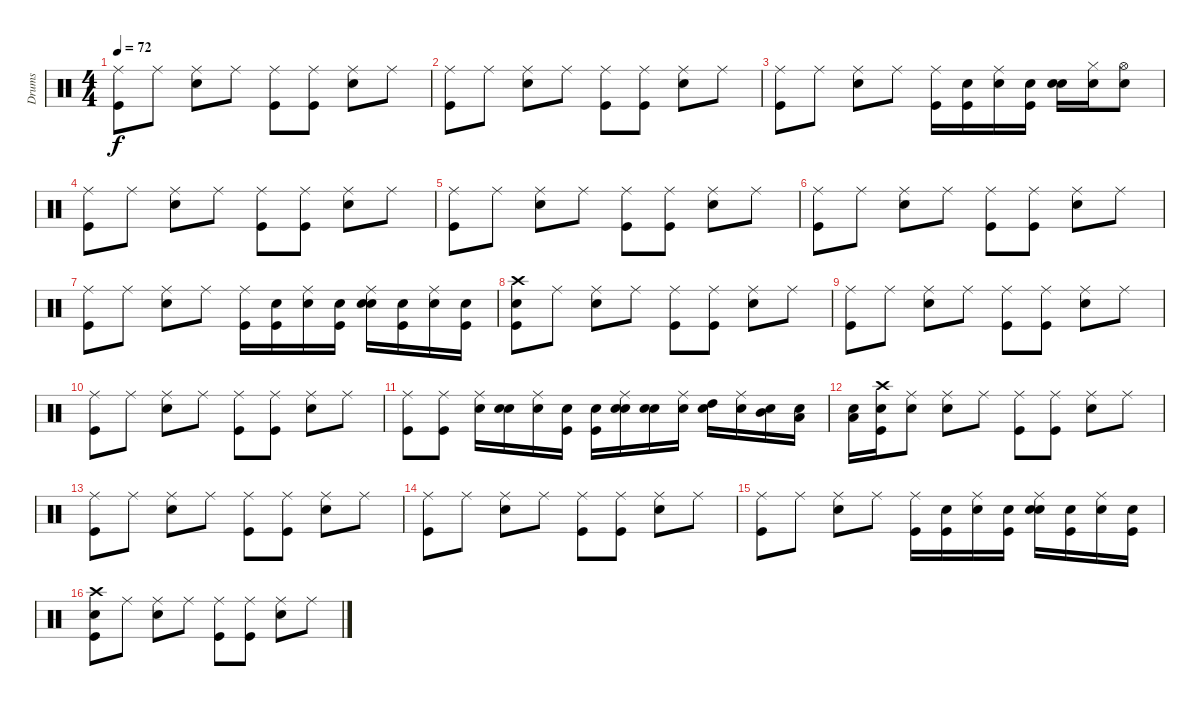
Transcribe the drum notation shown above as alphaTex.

\track ("Drums" "Drums") {instrument percussion}
\staff {score}
\articulation defaults
\ts (4 4)
\tempo 72
\clef neutral
\ks c
("Ride (middle)" "Kick (hit)").8{dy f} "Ride (middle)".8 ("Ride (middle)" "Snare (hit) 2").8 "Ride (middle)".8 ("Ride (middle)" "Kick (hit)").8 ("Ride (middle)" "Kick (hit)").8 ("Ride (middle)" "Snare (hit) 2").8 "Ride (middle)".8 |
("Ride (middle)" "Kick (hit)").8 "Ride (middle)".8 ("Ride (middle)" "Snare (hit) 2").8 "Ride (middle)".8 ("Ride (middle)" "Kick (hit)").8 ("Ride (middle)" "Kick (hit)").8 ("Ride (middle)" "Snare (hit) 2").8 "Ride (middle)".8 |
("Ride (middle)" "Kick (hit)").8 "Ride (middle)".8 ("Ride (middle)" "Snare (hit) 2").8 "Ride (middle)".8 ("Ride (middle)" "Kick (hit)").16 ("Snare (hit)" "Kick (hit)").16 ("Snare (hit)" "Ride (middle)").16 ("Snare (hit)" "Kick (hit)").16 ("Snare (hit)" "Snare (hit) 2").16 ("Snare (hit)" "Hi-Hat (closed)").16 ("Snare (hit)" "Hi-Hat (open)").8 |
("Ride (middle)" "Kick (hit)").8 "Ride (middle)".8 ("Ride (middle)" "Snare (hit) 2").8 "Ride (middle)".8 ("Ride (middle)" "Kick (hit)").8 ("Ride (middle)" "Kick (hit)").8 ("Ride (middle)" "Snare (hit) 2").8 "Ride (middle)".8 |
("Ride (middle)" "Kick (hit)").8 "Ride (middle)".8 ("Ride (middle)" "Snare (hit) 2").8 "Ride (middle)".8 ("Ride (middle)" "Kick (hit)").8 ("Ride (middle)" "Kick (hit)").8 ("Ride (middle)" "Snare (hit) 2").8 "Ride (middle)".8 |
("Ride (middle)" "Kick (hit)").8 "Ride (middle)".8 ("Ride (middle)" "Snare (hit) 2").8 "Ride (middle)".8 ("Ride (middle)" "Kick (hit)").8 ("Ride (middle)" "Kick (hit)").8 ("Ride (middle)" "Snare (hit) 2").8 "Ride (middle)".8 |
("Ride (middle)" "Kick (hit)").8 "Ride (middle)".8 ("Ride (middle)" "Snare (hit) 2").8 "Ride (middle)".8 ("Ride (middle)" "Kick (hit)").16 ("Snare (hit)" "Kick (hit)").16 ("Snare (hit)" "Ride (middle)").16 ("Snare (hit)" "Kick (hit)").16 ("Snare (hit)" "Ride (middle)" "Snare (hit) 2").16 ("Snare (hit)" "Kick (hit)").16 ("Snare (hit)" "Ride (middle)").16 ("Snare (hit)" "Kick (hit)").16 |
("Snare (hit)" "Crash high (hit)" "Kick (hit)").8 "Ride (middle)".8 ("Ride (middle)" "Snare (hit) 2").8 "Ride (middle)".8 ("Ride (middle)" "Kick (hit)").8 ("Ride (middle)" "Kick (hit)").8 ("Ride (middle)" "Snare (hit) 2").8 "Ride (middle)".8 |
("Ride (middle)" "Kick (hit)").8 "Ride (middle)".8 ("Ride (middle)" "Snare (hit) 2").8 "Ride (middle)".8 ("Ride (middle)" "Kick (hit)").8 ("Ride (middle)" "Kick (hit)").8 ("Ride (middle)" "Snare (hit) 2").8 "Ride (middle)".8 |
("Ride (middle)" "Kick (hit)").8 "Ride (middle)".8 ("Ride (middle)" "Snare (hit) 2").8 "Ride (middle)".8 ("Ride (middle)" "Kick (hit)").8 ("Ride (middle)" "Kick (hit)").8 ("Ride (middle)" "Snare (hit) 2").8 "Ride (middle)".8 |
("Ride (middle)" "Kick (hit)").8 ("Ride (middle)" "Kick (hit)").8 ("Ride (middle)" "Snare (hit) 2").16 ("Snare (hit)" "Snare (hit) 2").16 ("Snare (hit)" "Ride (middle)").16 ("Snare (hit)" "Kick (hit)").16 ("Snare (hit)" "Kick (hit)").16 ("Snare (hit)" "Ride (middle)" "Snare (hit) 2").16 ("Snare (hit)" "Snare (hit) 2").16 ("Snare (hit)" "Ride (middle)").16 ("Snare (hit)" "High Tom (hit)").16 ("Snare (hit)" "Ride (middle)").16 ("Snare (hit)" "Mid Tom (hit)").16 ("Snare (hit)" "Low Tom (hit)").16 |
("Snare (hit)" "Low Tom (hit)").16 ("Snare (hit)" "Crash high (hit)" "Kick (hit)").16 ("Snare (hit)" "Ride (middle)").8 ("Ride (middle)" "Snare (hit) 2").8 "Ride (middle)".8 ("Ride (middle)" "Kick (hit)").8 ("Ride (middle)" "Kick (hit)").8 ("Ride (middle)" "Snare (hit) 2").8 "Ride (middle)".8 |
("Ride (middle)" "Kick (hit)").8 "Ride (middle)".8 ("Ride (middle)" "Snare (hit) 2").8 "Ride (middle)".8 ("Ride (middle)" "Kick (hit)").8 ("Ride (middle)" "Kick (hit)").8 ("Ride (middle)" "Snare (hit) 2").8 "Ride (middle)".8 |
("Ride (middle)" "Kick (hit)").8 "Ride (middle)".8 ("Ride (middle)" "Snare (hit) 2").8 "Ride (middle)".8 ("Ride (middle)" "Kick (hit)").8 ("Ride (middle)" "Kick (hit)").8 ("Ride (middle)" "Snare (hit) 2").8 "Ride (middle)".8 |
("Ride (middle)" "Kick (hit)").8 "Ride (middle)".8 ("Ride (middle)" "Snare (hit) 2").8 "Ride (middle)".8 ("Ride (middle)" "Kick (hit)").16 ("Snare (hit)" "Kick (hit)").16 ("Snare (hit)" "Ride (middle)").16 ("Snare (hit)" "Kick (hit)").16 ("Snare (hit)" "Ride (middle)" "Snare (hit) 2").16 ("Snare (hit)" "Kick (hit)").16 ("Snare (hit)" "Ride (middle)").16 ("Snare (hit)" "Kick (hit)").16 |
("Snare (hit)" "Crash high (hit)" "Kick (hit)").8 "Ride (middle)".8 ("Ride (middle)" "Snare (hit) 2").8 "Ride (middle)".8 ("Ride (middle)" "Kick (hit)").8 ("Ride (middle)" "Kick (hit)").8 ("Ride (middle)" "Snare (hit) 2").8 "Ride (middle)".8
